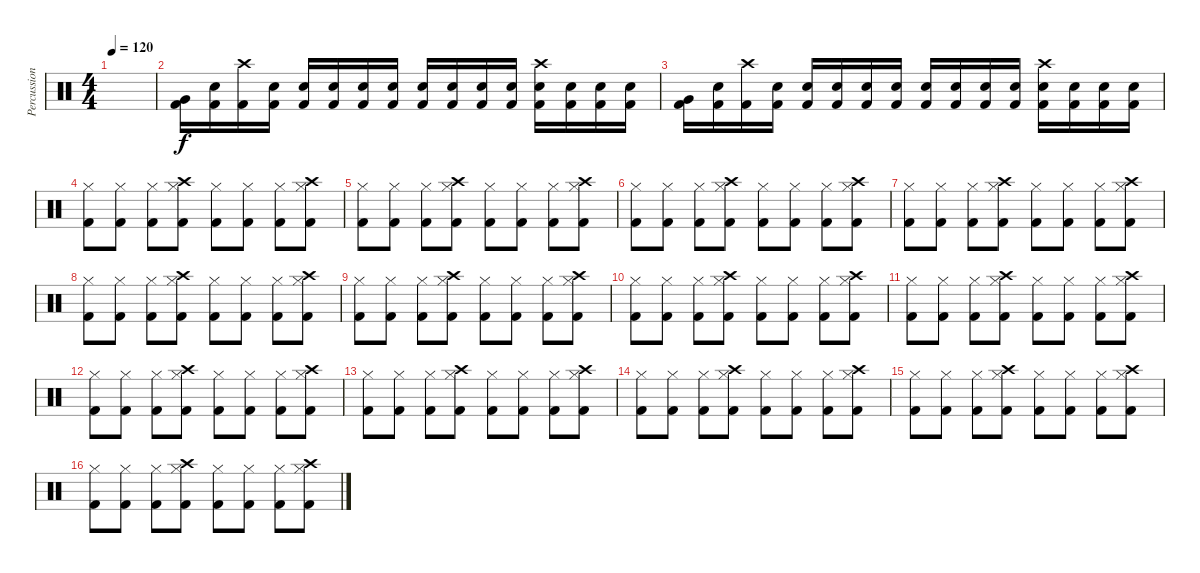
\track ("Percussion" "Percussion") {instrument percussion}
\staff {score}
\articulation defaults
\ts (4 4)
\tempo 120
\clef neutral
\ks c
|
("Kick (hit) 2" "Very Low Tom (hit)").16 ("Kick (hit) 2" "Electric Snare (hit)").16 ("Kick (hit) 2" "Crash high (hit)").16 ("Kick (hit) 2" "Electric Snare (hit)").16 ("Kick (hit) 2" "Electric Snare (hit)").16 ("Kick (hit) 2" "Electric Snare (hit)").16 ("Kick (hit) 2" "Electric Snare (hit)").16 ("Kick (hit) 2" "Electric Snare (hit)").16 ("Kick (hit) 2" "Electric Snare (hit)").16 ("Kick (hit) 2" "Electric Snare (hit)").16 ("Kick (hit) 2" "Electric Snare (hit)").16 ("Kick (hit) 2" "Electric Snare (hit)").16 ("Crash high (hit)" "Kick (hit) 2" "Electric Snare (hit)").16 ("Kick (hit) 2" "Electric Snare (hit)").16 ("Kick (hit) 2" "Electric Snare (hit)").16 ("Kick (hit) 2" "Electric Snare (hit)").16 |
("Kick (hit) 2" "Very Low Tom (hit)").16 ("Kick (hit) 2" "Electric Snare (hit)").16 ("Kick (hit) 2" "Crash high (hit)").16 ("Kick (hit) 2" "Electric Snare (hit)").16 ("Kick (hit) 2" "Electric Snare (hit)").16 ("Kick (hit) 2" "Electric Snare (hit)").16 ("Kick (hit) 2" "Electric Snare (hit)").16 ("Kick (hit) 2" "Electric Snare (hit)").16 ("Kick (hit) 2" "Electric Snare (hit)").16 ("Kick (hit) 2" "Electric Snare (hit)").16 ("Kick (hit) 2" "Electric Snare (hit)").16 ("Kick (hit) 2" "Electric Snare (hit)").16 ("Crash high (hit)" "Kick (hit) 2" "Electric Snare (hit)").16 ("Kick (hit) 2" "Electric Snare (hit)").16 ("Kick (hit) 2" "Electric Snare (hit)").16 ("Kick (hit) 2" "Electric Snare (hit)").16 |
("Kick (hit) 2" "Hi-Hat (closed)").8 ("Kick (hit) 2" "Hi-Hat (closed)").8 ("Kick (hit) 2" "Hi-Hat (closed)").8 ("Kick (hit) 2" "Crash high (hit)" "Hi-Hat (closed)").8 ("Kick (hit) 2" "Hi-Hat (closed)").8 ("Kick (hit) 2" "Hi-Hat (closed)").8 ("Kick (hit) 2" "Hi-Hat (closed)").8 ("Kick (hit) 2" "Crash high (hit)" "Hi-Hat (closed)").8 |
("Kick (hit) 2" "Hi-Hat (closed)").8 ("Kick (hit) 2" "Hi-Hat (closed)").8 ("Kick (hit) 2" "Hi-Hat (closed)").8 ("Kick (hit) 2" "Crash high (hit)" "Hi-Hat (closed)").8 ("Kick (hit) 2" "Hi-Hat (closed)").8 ("Kick (hit) 2" "Hi-Hat (closed)").8 ("Kick (hit) 2" "Hi-Hat (closed)").8 ("Kick (hit) 2" "Crash high (hit)" "Hi-Hat (closed)").8 |
("Kick (hit) 2" "Hi-Hat (closed)").8 ("Kick (hit) 2" "Hi-Hat (closed)").8 ("Kick (hit) 2" "Hi-Hat (closed)").8 ("Kick (hit) 2" "Crash high (hit)" "Hi-Hat (closed)").8 ("Kick (hit) 2" "Hi-Hat (closed)").8 ("Kick (hit) 2" "Hi-Hat (closed)").8 ("Kick (hit) 2" "Hi-Hat (closed)").8 ("Kick (hit) 2" "Crash high (hit)" "Hi-Hat (closed)").8 |
("Kick (hit) 2" "Hi-Hat (closed)").8 ("Kick (hit) 2" "Hi-Hat (closed)").8 ("Kick (hit) 2" "Hi-Hat (closed)").8 ("Kick (hit) 2" "Crash high (hit)" "Hi-Hat (closed)").8 ("Kick (hit) 2" "Hi-Hat (closed)").8 ("Kick (hit) 2" "Hi-Hat (closed)").8 ("Kick (hit) 2" "Hi-Hat (closed)").8 ("Kick (hit) 2" "Crash high (hit)" "Hi-Hat (closed)").8 |
("Kick (hit) 2" "Hi-Hat (closed)").8 ("Kick (hit) 2" "Hi-Hat (closed)").8 ("Kick (hit) 2" "Hi-Hat (closed)").8 ("Kick (hit) 2" "Crash high (hit)" "Hi-Hat (closed)").8 ("Kick (hit) 2" "Hi-Hat (closed)").8 ("Kick (hit) 2" "Hi-Hat (closed)").8 ("Kick (hit) 2" "Hi-Hat (closed)").8 ("Kick (hit) 2" "Crash high (hit)" "Hi-Hat (closed)").8 |
("Kick (hit) 2" "Hi-Hat (closed)").8 ("Kick (hit) 2" "Hi-Hat (closed)").8 ("Kick (hit) 2" "Hi-Hat (closed)").8 ("Kick (hit) 2" "Crash high (hit)" "Hi-Hat (closed)").8 ("Kick (hit) 2" "Hi-Hat (closed)").8 ("Kick (hit) 2" "Hi-Hat (closed)").8 ("Kick (hit) 2" "Hi-Hat (closed)").8 ("Kick (hit) 2" "Crash high (hit)" "Hi-Hat (closed)").8 |
("Kick (hit) 2" "Hi-Hat (closed)").8 ("Kick (hit) 2" "Hi-Hat (closed)").8 ("Kick (hit) 2" "Hi-Hat (closed)").8 ("Kick (hit) 2" "Crash high (hit)" "Hi-Hat (closed)").8 ("Kick (hit) 2" "Hi-Hat (closed)").8 ("Kick (hit) 2" "Hi-Hat (closed)").8 ("Kick (hit) 2" "Hi-Hat (closed)").8 ("Kick (hit) 2" "Crash high (hit)" "Hi-Hat (closed)").8 |
("Kick (hit) 2" "Hi-Hat (closed)").8 ("Kick (hit) 2" "Hi-Hat (closed)").8 ("Kick (hit) 2" "Hi-Hat (closed)").8 ("Kick (hit) 2" "Crash high (hit)" "Hi-Hat (closed)").8 ("Kick (hit) 2" "Hi-Hat (closed)").8 ("Kick (hit) 2" "Hi-Hat (closed)").8 ("Kick (hit) 2" "Hi-Hat (closed)").8 ("Kick (hit) 2" "Crash high (hit)" "Hi-Hat (closed)").8 |
("Kick (hit) 2" "Hi-Hat (closed)").8 ("Kick (hit) 2" "Hi-Hat (closed)").8 ("Kick (hit) 2" "Hi-Hat (closed)").8 ("Kick (hit) 2" "Crash high (hit)" "Hi-Hat (closed)").8 ("Kick (hit) 2" "Hi-Hat (closed)").8 ("Kick (hit) 2" "Hi-Hat (closed)").8 ("Kick (hit) 2" "Hi-Hat (closed)").8 ("Kick (hit) 2" "Crash high (hit)" "Hi-Hat (closed)").8 |
("Kick (hit) 2" "Hi-Hat (closed)").8 ("Kick (hit) 2" "Hi-Hat (closed)").8 ("Kick (hit) 2" "Hi-Hat (closed)").8 ("Kick (hit) 2" "Crash high (hit)" "Hi-Hat (closed)").8 ("Kick (hit) 2" "Hi-Hat (closed)").8 ("Kick (hit) 2" "Hi-Hat (closed)").8 ("Kick (hit) 2" "Hi-Hat (closed)").8 ("Kick (hit) 2" "Crash high (hit)" "Hi-Hat (closed)").8 |
("Kick (hit) 2" "Hi-Hat (closed)").8 ("Kick (hit) 2" "Hi-Hat (closed)").8 ("Kick (hit) 2" "Hi-Hat (closed)").8 ("Kick (hit) 2" "Crash high (hit)" "Hi-Hat (closed)").8 ("Kick (hit) 2" "Hi-Hat (closed)").8 ("Kick (hit) 2" "Hi-Hat (closed)").8 ("Kick (hit) 2" "Hi-Hat (closed)").8 ("Kick (hit) 2" "Crash high (hit)" "Hi-Hat (closed)").8 |
("Kick (hit) 2" "Hi-Hat (closed)").8 ("Kick (hit) 2" "Hi-Hat (closed)").8 ("Kick (hit) 2" "Hi-Hat (closed)").8 ("Kick (hit) 2" "Crash high (hit)" "Hi-Hat (closed)").8 ("Kick (hit) 2" "Hi-Hat (closed)").8 ("Kick (hit) 2" "Hi-Hat (closed)").8 ("Kick (hit) 2" "Hi-Hat (closed)").8 ("Kick (hit) 2" "Crash high (hit)" "Hi-Hat (closed)").8 |
("Kick (hit) 2" "Hi-Hat (closed)").8 ("Kick (hit) 2" "Hi-Hat (closed)").8 ("Kick (hit) 2" "Hi-Hat (closed)").8 ("Kick (hit) 2" "Crash high (hit)" "Hi-Hat (closed)").8 ("Kick (hit) 2" "Hi-Hat (closed)").8 ("Kick (hit) 2" "Hi-Hat (closed)").8 ("Kick (hit) 2" "Hi-Hat (closed)").8 ("Kick (hit) 2" "Crash high (hit)" "Hi-Hat (closed)").8
